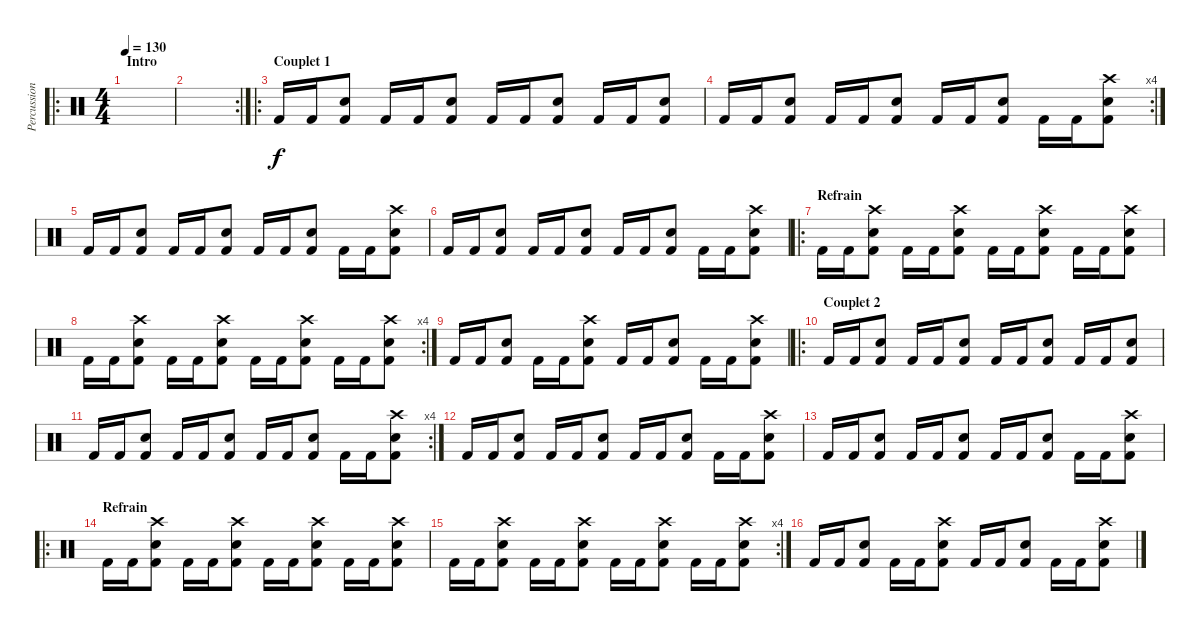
\track ("Percussions" "Percussion") {instrument percussion}
\staff {score}
\articulation defaults
\ro
\ts (4 4)
\section ("" "Intro")
\tempo 130
\clef neutral
\ks c
|
\rc 2
|
\ro
\section ("" "Couplet 1")
"Kick (hit) 2".16 "Kick (hit) 2".16 ("Snare (hit) 2" "Kick (hit) 2").8 "Kick (hit) 2".16 "Kick (hit) 2".16 ("Snare (hit) 2" "Kick (hit) 2").8 "Kick (hit) 2".16 "Kick (hit) 2".16 ("Snare (hit) 2" "Kick (hit) 2").8 "Kick (hit) 2".16 "Kick (hit) 2".16 ("Snare (hit) 2" "Kick (hit) 2").8 |
\rc 4 "Kick (hit) 2".16 "Kick (hit) 2".16
("Snare (hit) 2" "Kick (hit) 2").8 "Kick (hit) 2".16 "Kick (hit) 2".16 ("Snare (hit) 2" "Kick (hit) 2").8 "Kick (hit) 2".16 "Kick (hit) 2".16 ("Snare (hit) 2" "Kick (hit) 2").8 "Kick (hit) 2".16 "Kick (hit) 2".16 ("Snare (hit) 2" "Kick (hit) 2" "Crash high (hit)").8 |
"Kick (hit) 2".16 "Kick (hit) 2".16 ("Snare (hit) 2" "Kick (hit) 2").8 "Kick (hit) 2".16 "Kick (hit) 2".16 ("Snare (hit) 2" "Kick (hit) 2").8 "Kick (hit) 2".16 "Kick (hit) 2".16 ("Snare (hit) 2" "Kick (hit) 2").8 "Kick (hit) 2".16 "Kick (hit) 2".16 ("Snare (hit) 2" "Kick (hit) 2" "Crash high (hit)").8 |
"Kick (hit) 2".16 "Kick (hit) 2".16 ("Snare (hit) 2" "Kick (hit) 2").8 "Kick (hit) 2".16 "Kick (hit) 2".16 ("Snare (hit) 2" "Kick (hit) 2").8 "Kick (hit) 2".16 "Kick (hit) 2".16 ("Snare (hit) 2" "Kick (hit) 2").8 "Kick (hit) 2".16 "Kick (hit) 2".16 ("Snare (hit) 2" "Kick (hit) 2" "Crash high (hit)").8 |
\ro
\section ("" "Refrain")
"Kick (hit) 2".16 "Kick (hit) 2".16 ("Snare (hit) 2" "Kick (hit) 2" "Crash high (hit)").8 "Kick (hit) 2".16 "Kick (hit) 2".16 ("Snare (hit) 2" "Kick (hit) 2" "Crash high (hit)").8 "Kick (hit) 2".16 "Kick (hit) 2".16 ("Snare (hit) 2" "Kick (hit) 2" "Crash high (hit)").8 "Kick (hit) 2".16 "Kick (hit) 2".16 ("Snare (hit) 2" "Kick (hit) 2" "Crash high (hit)").8 |
\rc 4 "Kick (hit) 2".16 "Kick (hit) 2".16
("Snare (hit) 2" "Kick (hit) 2" "Crash high (hit)").8 "Kick (hit) 2".16 "Kick (hit) 2".16 ("Snare (hit) 2" "Kick (hit) 2" "Crash high (hit)").8 "Kick (hit) 2".16 "Kick (hit) 2".16 ("Snare (hit) 2" "Kick (hit) 2" "Crash high (hit)").8 "Kick (hit) 2".16 "Kick (hit) 2".16 ("Snare (hit) 2" "Kick (hit) 2" "Crash high (hit)").8 |
"Kick (hit) 2".16 "Kick (hit) 2".16 ("Snare (hit) 2" "Kick (hit) 2").8 "Kick (hit) 2".16 "Kick (hit) 2".16 ("Snare (hit) 2" "Kick (hit) 2" "Crash high (hit)").8 "Kick (hit) 2".16 "Kick (hit) 2".16 ("Snare (hit) 2" "Kick (hit) 2").8 "Kick (hit) 2".16 "Kick (hit) 2".16 ("Snare (hit) 2" "Kick (hit) 2" "Crash high (hit)").8 |
\ro
\section ("" "Couplet 2")
"Kick (hit) 2".16 "Kick (hit) 2".16 ("Snare (hit) 2" "Kick (hit) 2").8 "Kick (hit) 2".16 "Kick (hit) 2".16 ("Snare (hit) 2" "Kick (hit) 2").8 "Kick (hit) 2".16 "Kick (hit) 2".16 ("Snare (hit) 2" "Kick (hit) 2").8 "Kick (hit) 2".16 "Kick (hit) 2".16 ("Snare (hit) 2" "Kick (hit) 2").8 |
\rc 4 "Kick (hit) 2".16 "Kick (hit) 2".16
("Snare (hit) 2" "Kick (hit) 2").8 "Kick (hit) 2".16 "Kick (hit) 2".16 ("Snare (hit) 2" "Kick (hit) 2").8 "Kick (hit) 2".16 "Kick (hit) 2".16 ("Snare (hit) 2" "Kick (hit) 2").8 "Kick (hit) 2".16 "Kick (hit) 2".16 ("Snare (hit) 2" "Kick (hit) 2" "Crash high (hit)").8 |
"Kick (hit) 2".16 "Kick (hit) 2".16 ("Snare (hit) 2" "Kick (hit) 2").8 "Kick (hit) 2".16 "Kick (hit) 2".16 ("Snare (hit) 2" "Kick (hit) 2").8 "Kick (hit) 2".16 "Kick (hit) 2".16 ("Snare (hit) 2" "Kick (hit) 2").8 "Kick (hit) 2".16 "Kick (hit) 2".16 ("Snare (hit) 2" "Kick (hit) 2" "Crash high (hit)").8 |
"Kick (hit) 2".16 "Kick (hit) 2".16 ("Snare (hit) 2" "Kick (hit) 2").8 "Kick (hit) 2".16 "Kick (hit) 2".16 ("Snare (hit) 2" "Kick (hit) 2").8 "Kick (hit) 2".16 "Kick (hit) 2".16 ("Snare (hit) 2" "Kick (hit) 2").8 "Kick (hit) 2".16 "Kick (hit) 2".16 ("Snare (hit) 2" "Kick (hit) 2" "Crash high (hit)").8 |
\ro
\section ("" "Refrain")
"Kick (hit) 2".16 "Kick (hit) 2".16 ("Snare (hit) 2" "Kick (hit) 2" "Crash high (hit)").8 "Kick (hit) 2".16 "Kick (hit) 2".16 ("Snare (hit) 2" "Kick (hit) 2" "Crash high (hit)").8 "Kick (hit) 2".16 "Kick (hit) 2".16 ("Snare (hit) 2" "Kick (hit) 2" "Crash high (hit)").8 "Kick (hit) 2".16 "Kick (hit) 2".16 ("Snare (hit) 2" "Kick (hit) 2" "Crash high (hit)").8 |
\rc 4 "Kick (hit) 2".16 "Kick (hit) 2".16
("Snare (hit) 2" "Kick (hit) 2" "Crash high (hit)").8 "Kick (hit) 2".16 "Kick (hit) 2".16 ("Snare (hit) 2" "Kick (hit) 2" "Crash high (hit)").8 "Kick (hit) 2".16 "Kick (hit) 2".16 ("Snare (hit) 2" "Kick (hit) 2" "Crash high (hit)").8 "Kick (hit) 2".16 "Kick (hit) 2".16 ("Snare (hit) 2" "Kick (hit) 2" "Crash high (hit)").8 |
"Kick (hit) 2".16 "Kick (hit) 2".16 ("Snare (hit) 2" "Kick (hit) 2").8 "Kick (hit) 2".16 "Kick (hit) 2".16 ("Snare (hit) 2" "Kick (hit) 2" "Crash high (hit)").8 "Kick (hit) 2".16 "Kick (hit) 2".16 ("Snare (hit) 2" "Kick (hit) 2").8 "Kick (hit) 2".16 "Kick (hit) 2".16 ("Snare (hit) 2" "Kick (hit) 2" "Crash high (hit)").8
